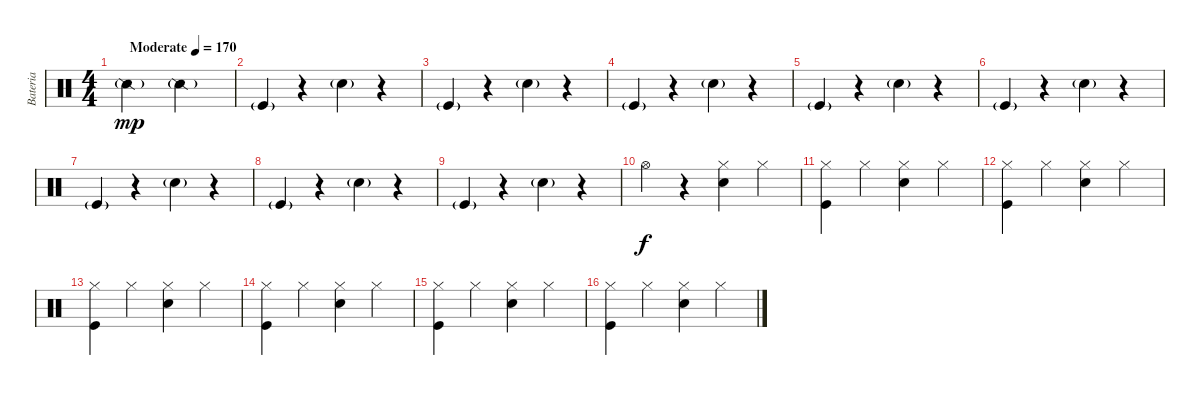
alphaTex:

\track ("Bateria" "Bateria") {instrument percussion}
\staff {score}
\articulation defaults
\ts (4 4)
\tempo (170 "Moderate")
\clef neutral
\ks c "Snare (side stick) 2"{g}.2{dy mp} "Snare (side stick) 2"{g}.2
|
"Kick (hit)"{g}.4{balance 0} r.4 "Snare (hit) 2"{g}.4 r.4 |
"Kick (hit)"{g}.4 r.4 "Snare (hit) 2"{g}.4 r.4 |
"Kick (hit)"{g}.4 r.4 "Snare (hit) 2"{g}.4 r.4 |
"Kick (hit)"{g}.4 r.4 "Snare (hit) 2"{g}.4 r.4 |
"Kick (hit)"{g}.4 r.4 "Snare (hit) 2"{g}.4 r.4 |
"Kick (hit)"{g}.4 r.4 "Snare (hit) 2"{g}.4 r.4 |
"Kick (hit)"{g}.4 r.4 "Snare (hit) 2"{g}.4 r.4 |
"Kick (hit)"{g}.4 r.4 "Snare (hit) 2"{g}.4 r.4 |
"Hi-Hat (open)".4{dy f balance 8} r.4 ("Hi-Hat (closed)" "Snare (hit) 2").4 "Hi-Hat (closed)".4 |
("Hi-Hat (closed)" "Kick (hit)").4 "Hi-Hat (closed)".4 ("Hi-Hat (closed)" "Snare (hit) 2").4 "Hi-Hat (closed)".4 |
("Hi-Hat (closed)" "Kick (hit)").4 "Hi-Hat (closed)".4 ("Hi-Hat (closed)" "Snare (hit) 2").4 "Hi-Hat (closed)".4 |
("Hi-Hat (closed)" "Kick (hit)").4 "Hi-Hat (closed)".4 ("Hi-Hat (closed)" "Snare (hit) 2").4 "Hi-Hat (closed)".4 |
("Hi-Hat (closed)" "Kick (hit)").4 "Hi-Hat (closed)".4 ("Hi-Hat (closed)" "Snare (hit) 2").4 "Hi-Hat (closed)".4 |
("Hi-Hat (closed)" "Kick (hit)").4 "Hi-Hat (closed)".4 ("Hi-Hat (closed)" "Snare (hit) 2").4 "Hi-Hat (closed)".4 |
("Hi-Hat (closed)" "Kick (hit)").4 "Hi-Hat (closed)".4 ("Hi-Hat (closed)" "Snare (hit) 2").4 "Hi-Hat (closed)".4
